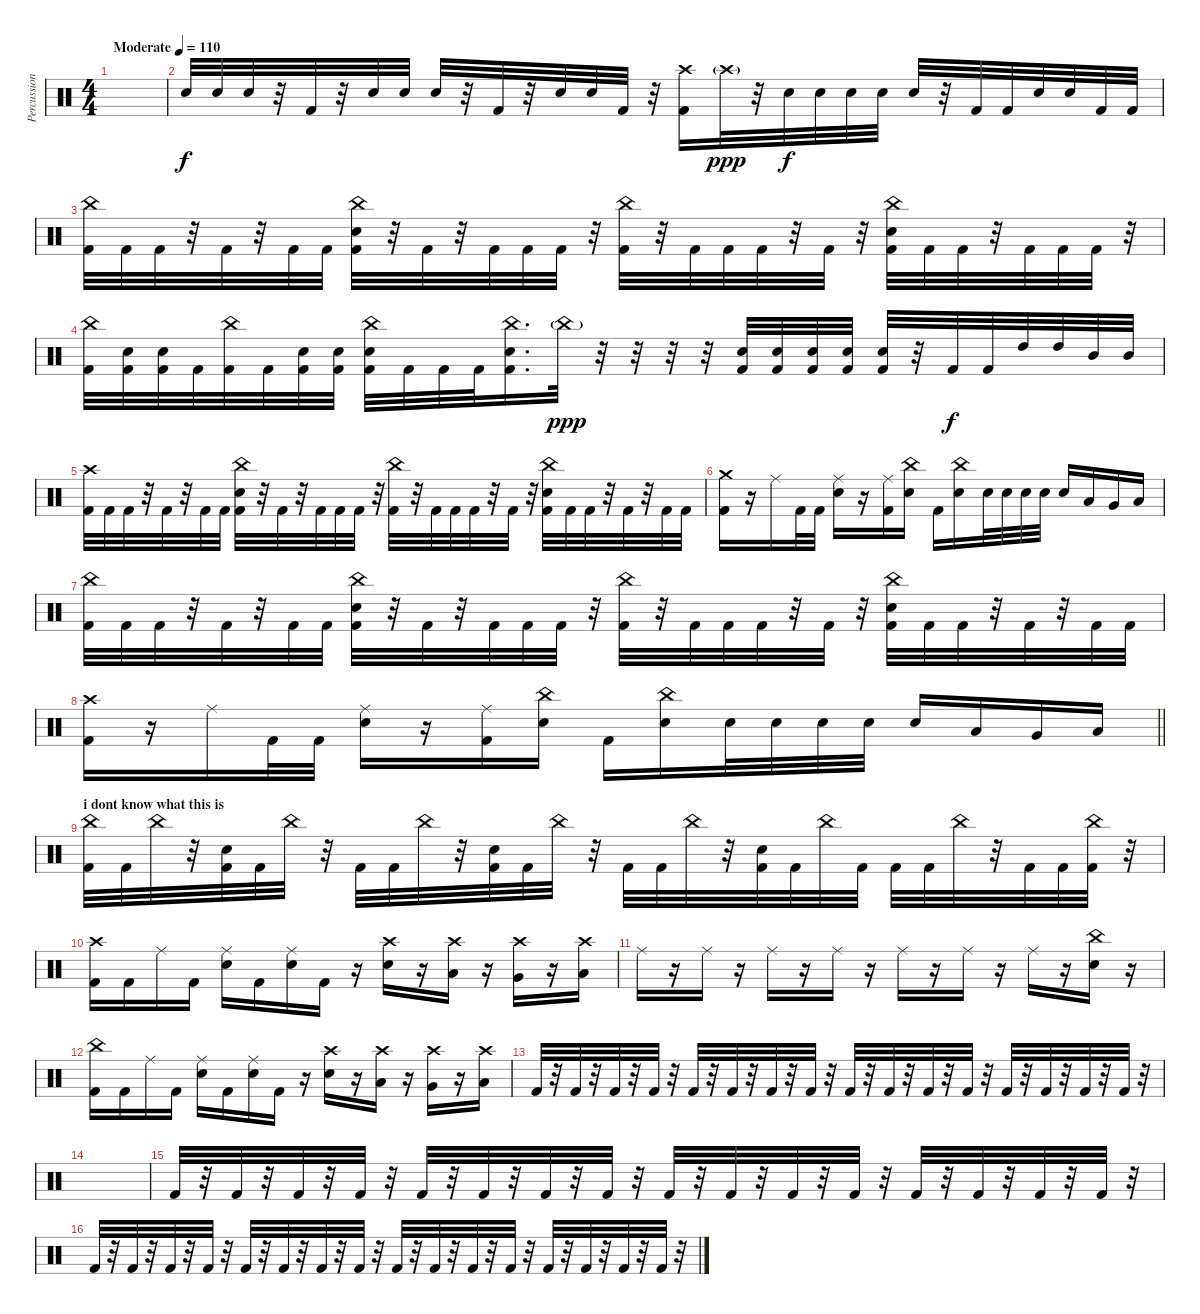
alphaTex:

\track ("Percussion" "Percussion") {instrument percussion}
\staff {score}
\articulation defaults
\ts (4 4)
\tempo (110 "Moderate")
\clef neutral
\ks c
|
"Snare (hit) 2".32 "Snare (hit) 2".32 "Snare (hit) 2".32 r.32 "Kick (hit) 2".32 r.32 "Snare (hit) 2".32 "Snare (hit) 2".32 "Snare (hit) 2".32 r.32 "Kick (hit) 2".32 r.32 "Snare (hit) 2".32 "Snare (hit) 2".32 "Kick (hit) 2".32 r.32 ("Crash high (hit)" "Kick (hit) 2").16 "Crash high (hit)"{g}.32{dy ppp} r.32 "Snare (hit) 2".32{dy f} "Snare (hit) 2".32 "Snare (hit) 2".32 "Snare (hit) 2".32 "Snare (hit) 2".32 r.32 "Kick (hit) 2".32 "Kick (hit) 2".32 "Snare (hit) 2".32 "Snare (hit) 2".32 "Kick (hit) 2".32 "Kick (hit) 2".32 |
("Kick (hit) 2" "China (hit)").32 "Kick (hit) 2".32 "Kick (hit) 2".32 r.32 "Kick (hit) 2".32 r.32 "Kick (hit) 2".32 "Kick (hit) 2".32 ("Kick (hit) 2" "Snare (hit) 2" "China (hit)").32 r.32 "Kick (hit) 2".32 r.32 "Kick (hit) 2".32 "Kick (hit) 2".32 "Kick (hit) 2".32 r.32 ("Kick (hit) 2" "China (hit)").32 r.32 "Kick (hit) 2".32 "Kick (hit) 2".32 "Kick (hit) 2".32 r.32 "Kick (hit) 2".32 r.32 ("Kick (hit) 2" "Snare (hit) 2" "China (hit)").32 "Kick (hit) 2".32 "Kick (hit) 2".32 r.32 "Kick (hit) 2".32 "Kick (hit) 2".32 "Kick (hit) 2".32 r.32 |
("China (hit)" "Kick (hit) 2").32 ("Snare (hit) 2" "Kick (hit) 2").32 ("Snare (hit) 2" "Kick (hit) 2").32 "Kick (hit) 2".32 ("China (hit)" "Kick (hit) 2").32 "Kick (hit) 2".32 ("Snare (hit) 2" "Kick (hit) 2").32 ("Snare (hit) 2" "Kick (hit) 2").32 ("Snare (hit) 2" "China (hit)" "Kick (hit) 2").32 "Kick (hit) 2".32 "Kick (hit) 2".32 "Kick (hit) 2".32 ("Snare (hit) 2" "China (hit)" "Kick (hit) 2").16{d} "China (hit)"{g}.32{dy ppp} r.32 r.32 r.32 r.32 ("Snare (hit) 2" "Kick (hit) 2").32 ("Snare (hit) 2" "Kick (hit) 2").32 ("Snare (hit) 2" "Kick (hit) 2").32 ("Snare (hit) 2" "Kick (hit) 2").32 ("Snare (hit) 2" "Kick (hit) 2").32 r.32 "Kick (hit) 2".32{dy f} "Kick (hit) 2".32 "High Tom (hit)".32 "High Tom (hit)".32 "Mid Tom (hit)".32 "Mid Tom (hit)".32 |
("Kick (hit) 2" "Crash high (hit)").32 "Kick (hit) 2".32 "Kick (hit) 2".32 r.32 "Kick (hit) 2".32 r.32 "Kick (hit) 2".32 "Kick (hit) 2".32 ("Kick (hit) 2" "Snare (hit) 2" "China (hit)").32 r.32 "Kick (hit) 2".32 r.32 "Kick (hit) 2".32 "Kick (hit) 2".32 "Kick (hit) 2".32 r.32 ("Kick (hit) 2" "China (hit)").32 r.32 "Kick (hit) 2".32 "Kick (hit) 2".32 "Kick (hit) 2".32 r.32 "Kick (hit) 2".32 r.32 ("Kick (hit) 2" "Snare (hit) 2" "China (hit)").32 "Kick (hit) 2".32 "Kick (hit) 2".32 r.32 "Kick (hit) 2".32 r.32 "Kick (hit) 2".32 "Kick (hit) 2".32 |
("Kick (hit) 2" "Crash medium (hit)").16 r.16 "Ride (middle)".16 "Kick (hit) 2".32 "Kick (hit) 2".32 ("Snare (hit) 2" "Ride (middle)").16 r.16 ("Ride (middle)" "Kick (hit) 2").16 ("China (hit)" "Snare (hit) 2").16 "Kick (hit) 2".16 ("China (hit)" "Snare (hit) 2").16 "Snare (hit) 2".32 "Snare (hit) 2".32 "Snare (hit) 2".32 "Snare (hit) 2".32 "Snare (hit) 2".16 "Low Tom (hit)".16 "Very Low Tom (hit)".16 "Low Floor Tom (hit)".16 |
("Kick (hit) 2" "China (hit)").32 "Kick (hit) 2".32 "Kick (hit) 2".32 r.32 "Kick (hit) 2".32 r.32 "Kick (hit) 2".32 "Kick (hit) 2".32 ("Kick (hit) 2" "Snare (hit) 2" "China (hit)").32 r.32 "Kick (hit) 2".32 r.32 "Kick (hit) 2".32 "Kick (hit) 2".32 "Kick (hit) 2".32 r.32 ("Kick (hit) 2" "China (hit)").32 r.32 "Kick (hit) 2".32 "Kick (hit) 2".32 "Kick (hit) 2".32 r.32 "Kick (hit) 2".32 r.32 ("Kick (hit) 2" "Snare (hit) 2" "China (hit)").32 "Kick (hit) 2".32 "Kick (hit) 2".32 r.32 "Kick (hit) 2".32 r.32 "Kick (hit) 2".32 "Kick (hit) 2".32 |
\barLineRight lightlight
("Kick (hit) 2" "Crash high (hit)").16 r.16 "Ride (middle)".16 "Kick (hit) 2".32 "Kick (hit) 2".32 ("Snare (hit) 2" "Ride (middle)").16 r.16 ("Ride (middle)" "Kick (hit) 2").16 ("China (hit)" "Snare (hit) 2").16 "Kick (hit) 2".16 ("China (hit)" "Snare (hit) 2").16 "Snare (hit) 2".32 "Snare (hit) 2".32 "Snare (hit) 2".32 "Snare (hit) 2".32 "Snare (hit) 2".16 "Low Tom (hit)".16 "Very Low Tom (hit)".16 "Low Floor Tom (hit)".16 |
\section ("" "i dont know what this is")
("Kick (hit) 2" "China (hit)").32 "Kick (hit) 2".32 "China (hit)".32 r.32 ("Kick (hit) 2" "Snare (hit) 2").32 "Kick (hit) 2".32 "China (hit)".32 r.32 "Kick (hit) 2".32 "Kick (hit) 2".32 "China (hit)".32 r.32 ("Kick (hit) 2" "Snare (hit) 2").32 "Kick (hit) 2".32 "China (hit)".32 r.32 "Kick (hit) 2".32 "Kick (hit) 2".32 "China (hit)".32 r.32 ("Kick (hit) 2" "Snare (hit) 2").32 "Kick (hit) 2".32 "China (hit)".32 "Kick (hit) 2".32 "Kick (hit) 2".32 "Kick (hit) 2".32 "China (hit)".32 r.32 "Kick (hit) 2".32 "Kick (hit) 2".32 ("Kick (hit) 2" "China (hit)").32 r.32 |
("Kick (hit) 2" "Crash high (hit)").16 "Kick (hit) 2".16 "Ride (middle)".16 "Kick (hit) 2".16 ("Snare (hit) 2" "Ride (middle)").16 "Kick (hit) 2".16 ("Snare (hit) 2" "Ride (middle)").16 "Kick (hit) 2".16 r.16 ("Crash high (hit)" "Snare (hit) 2").16 r.16 ("Crash high (hit)" "Low Tom (hit)").16 r.16 ("Crash high (hit)" "Very Low Tom (hit)").16 r.16 ("Crash high (hit)" "Low Floor Tom (hit)").16 |
"Ride (middle)".16 r.16 "Ride (middle)".16 r.16 "Ride (middle)".16 r.16 "Ride (middle)".16 r.16 "Ride (middle)".16 r.16 "Ride (middle)".16 r.16 "Ride (middle)".16 r.16 ("Snare (hit) 2" "China (hit)").16 r.16 |
("Kick (hit) 2" "China (hit)").16 "Kick (hit) 2".16 "Ride (middle)".16 "Kick (hit) 2".16 ("Snare (hit) 2" "Ride (middle)").16 "Kick (hit) 2".16 ("Snare (hit) 2" "Ride (middle)").16 "Kick (hit) 2".16 r.16 ("Crash high (hit)" "Snare (hit) 2").16 r.16 ("Crash high (hit)" "Low Tom (hit)").16 r.16 ("Crash high (hit)" "Very Low Tom (hit)").16 r.16 ("Crash high (hit)" "Low Floor Tom (hit)").16 |
"Kick (hit) 2".32 r.32 "Kick (hit) 2".32 r.32 "Kick (hit) 2".32 r.32 "Kick (hit) 2".32 r.32 "Kick (hit) 2".32 r.32 "Kick (hit) 2".32 r.32 "Kick (hit) 2".32 r.32 "Kick (hit) 2".32 r.32 "Kick (hit) 2".32 r.32 "Kick (hit) 2".32 r.32 "Kick (hit) 2".32 r.32 "Kick (hit) 2".32 r.32 "Kick (hit) 2".32 r.32 "Kick (hit) 2".32 r.32 "Kick (hit) 2".32 r.32 "Kick (hit) 2".32 r.32 |
|
"Kick (hit) 2".32 r.32 "Kick (hit) 2".32 r.32 "Kick (hit) 2".32 r.32 "Kick (hit) 2".32 r.32 "Kick (hit) 2".32 r.32 "Kick (hit) 2".32 r.32 "Kick (hit) 2".32 r.32 "Kick (hit) 2".32 r.32 "Kick (hit) 2".32 r.32 "Kick (hit) 2".32 r.32 "Kick (hit) 2".32 r.32 "Kick (hit) 2".32 r.32 "Kick (hit) 2".32 r.32 "Kick (hit) 2".32 r.32 "Kick (hit) 2".32 r.32 "Kick (hit) 2".32 r.32 |
"Kick (hit) 2".32 r.32 "Kick (hit) 2".32 r.32 "Kick (hit) 2".32 r.32 "Kick (hit) 2".32 r.32 "Kick (hit) 2".32 r.32 "Kick (hit) 2".32 r.32 "Kick (hit) 2".32 r.32 "Kick (hit) 2".32 r.32 "Kick (hit) 2".32 r.32 "Kick (hit) 2".32 r.32 "Kick (hit) 2".32 r.32 "Kick (hit) 2".32 r.32 "Kick (hit) 2".32 r.32 "Kick (hit) 2".32 r.32 "Kick (hit) 2".32 r.32 "Kick (hit) 2".32 r.32
